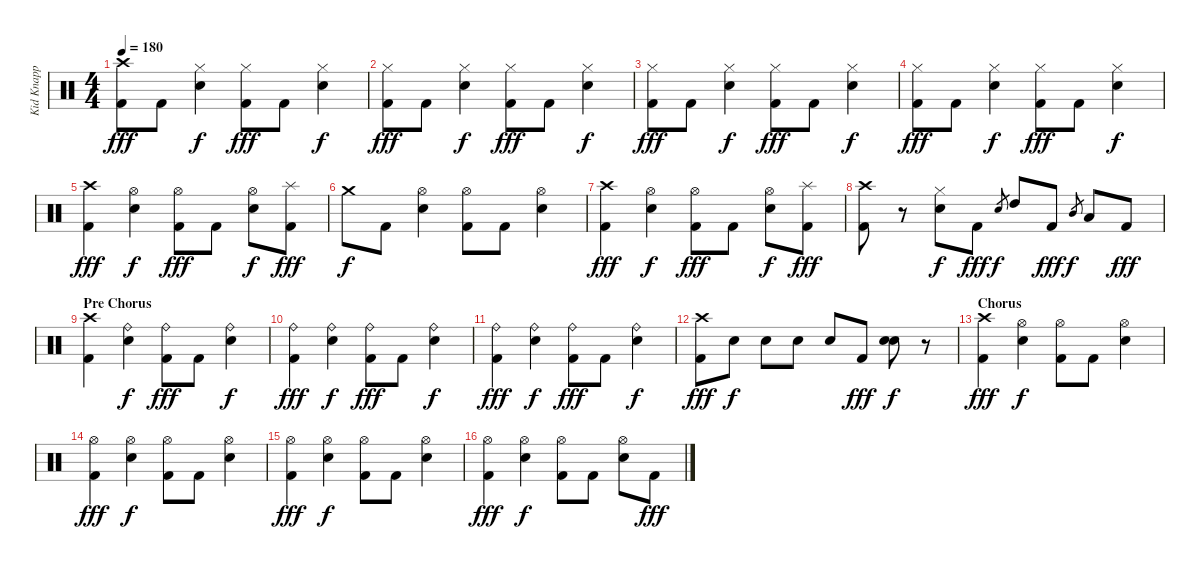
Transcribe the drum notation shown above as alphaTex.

\track ("Kid Knapp (Drums)" "Kid Knapp ") {instrument percussion}
\staff {score}
\articulation defaults
\ts (4 4)
\tempo 180
\clef neutral
\ks c
("Crash high (hit)" "Kick (hit) 2").8{dy fff} "Kick (hit) 2".8 ("Hi-Hat (closed)" "Snare (hit) 2").4{dy f} ("Hi-Hat (closed)" "Kick (hit) 2").8{dy fff} "Kick (hit) 2".8 ("Hi-Hat (closed)" "Snare (hit) 2").4{dy f} |
("Hi-Hat (closed)" "Kick (hit) 2").8{dy fff} "Kick (hit) 2".8 ("Hi-Hat (closed)" "Snare (hit) 2").4{dy f} ("Hi-Hat (closed)" "Kick (hit) 2").8{dy fff} "Kick (hit) 2".8 ("Hi-Hat (closed)" "Snare (hit) 2").4{dy f} |
("Hi-Hat (closed)" "Kick (hit) 2").8{dy fff} "Kick (hit) 2".8 ("Hi-Hat (closed)" "Snare (hit) 2").4{dy f} ("Hi-Hat (closed)" "Kick (hit) 2").8{dy fff} "Kick (hit) 2".8 ("Hi-Hat (closed)" "Snare (hit) 2").4{dy f} |
("Hi-Hat (closed)" "Kick (hit) 2").8{dy fff} "Kick (hit) 2".8 ("Hi-Hat (closed)" "Snare (hit) 2").4{dy f} ("Hi-Hat (closed)" "Kick (hit) 2").8{dy fff} "Kick (hit) 2".8 ("Hi-Hat (closed)" "Snare (hit) 2").4{dy f} |
("Crash high (hit)" "Kick (hit) 2").4{dy fff} ("Hi-Hat (open)" "Snare (hit) 2").4{dy f} ("Hi-Hat (open)" "Kick (hit) 2").8{dy fff} "Kick (hit) 2".8 ("Hi-Hat (open)" "Snare (hit) 2").8{dy f} ("Splash (hit)" "Kick (hit) 2").8{dy fff} |
"Crash medium (hit)".8{dy f} "Kick (hit) 2".8 ("Hi-Hat (open)" "Snare (hit) 2").4 ("Hi-Hat (open)" "Kick (hit) 2").8 "Kick (hit) 2".8 ("Hi-Hat (open)" "Snare (hit) 2").4 |
("Crash high (hit)" "Kick (hit) 2").4{dy fff} ("Hi-Hat (open)" "Snare (hit) 2").4{dy f} ("Hi-Hat (open)" "Kick (hit) 2").8{dy fff} "Kick (hit) 2".8 ("Hi-Hat (open)" "Snare (hit) 2").8{dy f} ("Splash (hit)" "Kick (hit) 2").8{dy fff} |
("Crash high (hit)" "Kick (hit) 2").8 r.8 ("Hi-Hat (closed)" "Snare (hit) 2").8{dy f} "Kick (hit) 2".8{dy fff} "Snare (hit) 2".8{gr dy f} "High Tom (hit)".8 "Kick (hit) 2".8{dy fff} "Mid Tom (hit)".8{gr dy f} "Low Tom (hit)".8 "Kick (hit) 2".8{dy fff} |
\section ("" "Pre Chorus")
("Crash high (hit)" "Kick (hit) 2").4 ("Ride (bell)" "Snare (hit) 2").4{dy f} ("Ride (bell)" "Kick (hit) 2").8{dy fff} "Kick (hit) 2".8 ("Ride (bell)" "Snare (hit) 2").4{dy f} |
("Ride (bell)" "Kick (hit) 2").4{dy fff} ("Ride (bell)" "Snare (hit) 2").4{dy f} ("Ride (bell)" "Kick (hit) 2").8{dy fff} "Kick (hit) 2".8 ("Ride (bell)" "Snare (hit) 2").4{dy f} |
("Ride (bell)" "Kick (hit) 2").4{dy fff} ("Ride (bell)" "Snare (hit) 2").4{dy f} ("Ride (bell)" "Kick (hit) 2").8{dy fff} "Kick (hit) 2".8 ("Ride (bell)" "Snare (hit) 2").4{dy f} |
("Crash high (hit)" "Kick (hit) 2").8{dy fff} "Snare (hit) 2".8{dy f} "Snare (hit) 2".8 "Snare (hit) 2".8 "Snare (hit) 2".8 "Kick (hit) 2".8{dy fff} ("Snare (hit) 2" "Snare (hit) 2").8{dy f} r.8 |
\section ("" "Chorus")
("Crash high (hit)" "Kick (hit) 2").4{dy fff} ("Hi-Hat (open)" "Snare (hit) 2").4{dy f} ("Hi-Hat (open)" "Kick (hit) 2").8 "Kick (hit) 2".8 ("Hi-Hat (open)" "Snare (hit) 2").4 |
("Hi-Hat (open)" "Kick (hit) 2").4{dy fff} ("Hi-Hat (open)" "Snare (hit) 2").4{dy f} ("Hi-Hat (open)" "Kick (hit) 2").8 "Kick (hit) 2".8 ("Hi-Hat (open)" "Snare (hit) 2").4 |
("Hi-Hat (open)" "Kick (hit) 2").4{dy fff} ("Hi-Hat (open)" "Snare (hit) 2").4{dy f} ("Hi-Hat (open)" "Kick (hit) 2").8 "Kick (hit) 2".8 ("Hi-Hat (open)" "Snare (hit) 2").4 |
("Hi-Hat (open)" "Kick (hit) 2").4{dy fff} ("Hi-Hat (open)" "Snare (hit) 2").4{dy f} ("Hi-Hat (open)" "Kick (hit) 2").8 "Kick (hit) 2".8 ("Hi-Hat (open)" "Snare (hit) 2").8 "Kick (hit) 2".8{dy fff}
